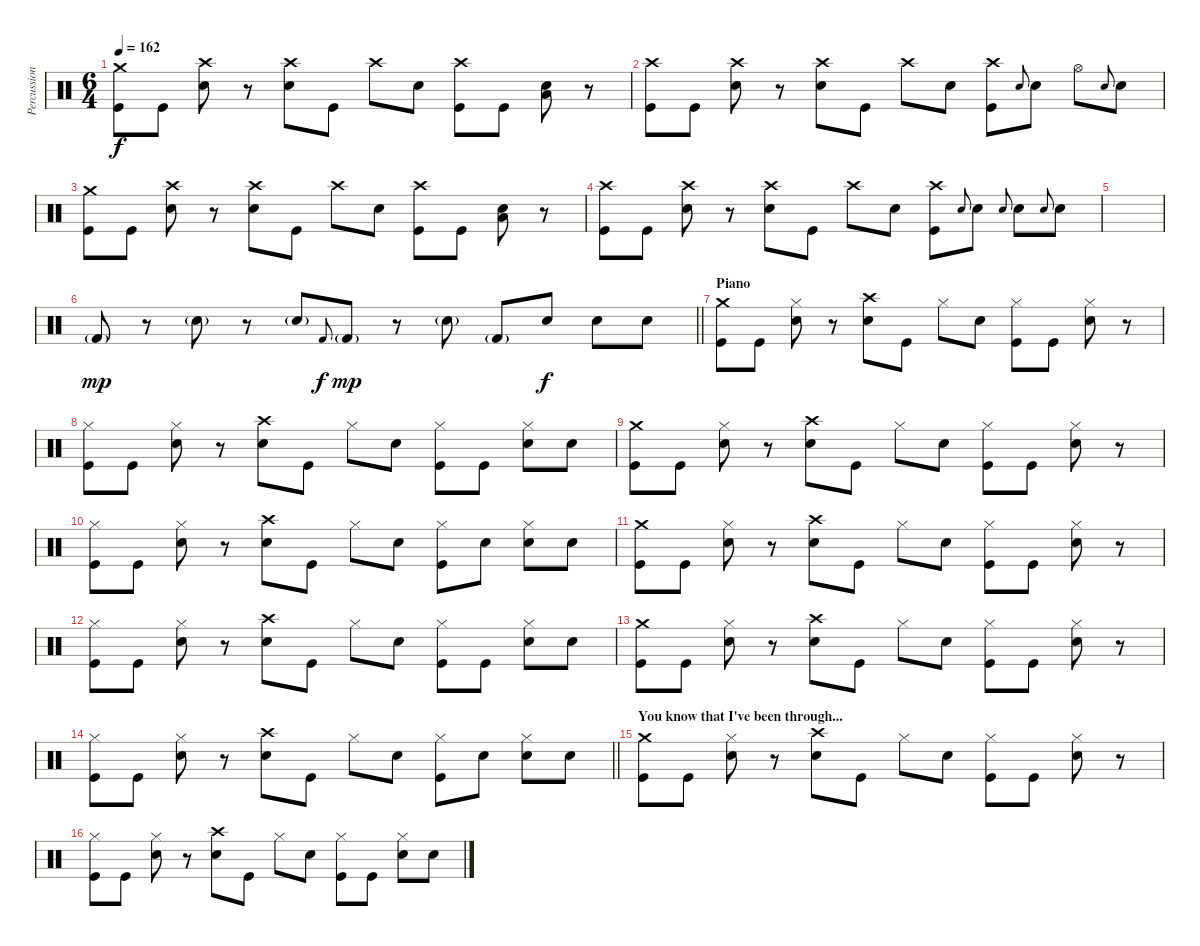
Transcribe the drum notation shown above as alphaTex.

\track ("Percussion" "Percussion") {instrument percussion}
\staff {score}
\articulation defaults
\ts (6 4)
\tempo 162
\clef neutral
\ks c
("Crash medium (hit)" "Kick (hit)").8{dy f} "Kick (hit)".8 ("Crash high (hit)" "Snare (hit) 2").8 r.8 ("Crash high (hit)" "Snare (hit) 2").8 "Kick (hit)".8 "Crash high (hit)".8 "Snare (hit) 2".8 ("Crash high (hit)" "Kick (hit)").8 "Kick (hit)".8 ("Low Floor Tom (hit)" "Snare (hit) 2").8 r.8 |
("Crash high (hit)" "Kick (hit)").8 "Kick (hit)".8 ("Crash high (hit)" "Snare (hit) 2").8 r.8 ("Crash high (hit)" "Snare (hit) 2").8 "Kick (hit)".8 "Crash high (hit)".8 "Snare (hit) 2".8 ("Crash high (hit)" "Kick (hit)").8 "Snare (hit) 2".8{gr onbeat} "Snare (hit) 2".8 "Hi-Hat (open)".8 "Snare (hit) 2".8{gr onbeat} "Snare (hit) 2".8 |
("Crash medium (hit)" "Kick (hit)").8 "Kick (hit)".8 ("Crash high (hit)" "Snare (hit) 2").8 r.8 ("Crash high (hit)" "Snare (hit) 2").8 "Kick (hit)".8 "Crash high (hit)".8 "Snare (hit) 2".8 ("Crash high (hit)" "Kick (hit)").8 "Kick (hit)".8 ("Low Floor Tom (hit)" "Snare (hit) 2").8 r.8 |
("Crash high (hit)" "Kick (hit)").8 "Kick (hit)".8 ("Crash high (hit)" "Snare (hit) 2").8 r.8 ("Crash high (hit)" "Snare (hit) 2").8 "Kick (hit)".8 "Crash high (hit)".8 "Snare (hit) 2".8 ("Crash high (hit)" "Kick (hit)").8 "Snare (hit) 2".8{gr onbeat} "Snare (hit) 2".8 "Snare (hit) 2".8{gr onbeat} "Snare (hit) 2".8 "Snare (hit) 2".8{gr onbeat} "Snare (hit) 2".8 |
|
\barLineRight lightlight "Kick (hit) 2"{g}.8{dy mp}
r.8 "Electric Snare (hit)"{g}.8 r.8 "Electric Snare (hit)"{g}.8 "Kick (hit) 2".8{gr onbeat dy f} "Kick (hit) 2"{g}.8{dy mp} r.8 "Electric Snare (hit)"{g}.8 "Kick (hit) 2"{g}.8 "Snare (hit) 2".8{dy f} "Snare (hit) 2".8 "Snare (hit) 2".8 |
\section ("" "Piano")
("Crash medium (hit)" "Kick (hit)").8 "Kick (hit)".8 ("Hi-Hat (closed)" "Snare (hit) 2").8 r.8 ("Crash high (hit)" "Snare (hit) 2").8 "Kick (hit)".8 "Hi-Hat (closed)".8 "Snare (hit) 2".8 ("Hi-Hat (closed)" "Kick (hit)").8 "Kick (hit)".8 ("Hi-Hat (closed)" "Snare (hit) 2").8 r.8 |
("Hi-Hat (closed)" "Kick (hit)").8 "Kick (hit)".8 ("Hi-Hat (closed)" "Snare (hit) 2").8 r.8 ("Crash high (hit)" "Snare (hit) 2").8 "Kick (hit)".8 "Hi-Hat (closed)".8 "Snare (hit) 2".8 ("Hi-Hat (closed)" "Kick (hit)").8 "Kick (hit)".8 ("Hi-Hat (closed)" "Snare (hit) 2").8 "Snare (hit) 2".8 |
("Crash medium (hit)" "Kick (hit)").8 "Kick (hit)".8 ("Hi-Hat (closed)" "Snare (hit) 2").8 r.8 ("Crash high (hit)" "Snare (hit) 2").8 "Kick (hit)".8 "Hi-Hat (closed)".8 "Snare (hit) 2".8 ("Hi-Hat (closed)" "Kick (hit)").8 "Kick (hit)".8 ("Hi-Hat (closed)" "Snare (hit) 2").8 r.8 |
("Hi-Hat (closed)" "Kick (hit)").8 "Kick (hit)".8 ("Hi-Hat (closed)" "Snare (hit) 2").8 r.8 ("Crash high (hit)" "Snare (hit) 2").8 "Kick (hit)".8 "Hi-Hat (closed)".8 "Snare (hit) 2".8 ("Hi-Hat (closed)" "Kick (hit)").8 "Snare (hit) 2".8 ("Hi-Hat (closed)" "Snare (hit) 2").8 "Snare (hit) 2".8 |
("Crash medium (hit)" "Kick (hit)").8 "Kick (hit)".8 ("Hi-Hat (closed)" "Snare (hit) 2").8 r.8 ("Crash high (hit)" "Snare (hit) 2").8 "Kick (hit)".8 "Hi-Hat (closed)".8 "Snare (hit) 2".8 ("Hi-Hat (closed)" "Kick (hit)").8 "Kick (hit)".8 ("Hi-Hat (closed)" "Snare (hit) 2").8 r.8 |
("Hi-Hat (closed)" "Kick (hit)").8 "Kick (hit)".8 ("Hi-Hat (closed)" "Snare (hit) 2").8 r.8 ("Crash high (hit)" "Snare (hit) 2").8 "Kick (hit)".8 "Hi-Hat (closed)".8 "Snare (hit) 2".8 ("Hi-Hat (closed)" "Kick (hit)").8 "Kick (hit)".8 ("Hi-Hat (closed)" "Snare (hit) 2").8 "Snare (hit) 2".8 |
("Crash medium (hit)" "Kick (hit)").8 "Kick (hit)".8 ("Hi-Hat (closed)" "Snare (hit) 2").8 r.8 ("Crash high (hit)" "Snare (hit) 2").8 "Kick (hit)".8 "Hi-Hat (closed)".8 "Snare (hit) 2".8 ("Hi-Hat (closed)" "Kick (hit)").8 "Kick (hit)".8 ("Hi-Hat (closed)" "Snare (hit) 2").8 r.8 |
\barLineRight lightlight
("Hi-Hat (closed)" "Kick (hit)").8 "Kick (hit)".8 ("Hi-Hat (closed)" "Snare (hit) 2").8 r.8 ("Crash high (hit)" "Snare (hit) 2").8 "Kick (hit)".8 "Hi-Hat (closed)".8 "Snare (hit) 2".8 ("Hi-Hat (closed)" "Kick (hit)").8 "Snare (hit) 2".8 ("Hi-Hat (closed)" "Snare (hit) 2").8 "Snare (hit) 2".8 |
\section ("" "You know that I've been through...")
("Crash medium (hit)" "Kick (hit)").8 "Kick (hit)".8 ("Hi-Hat (closed)" "Snare (hit) 2").8 r.8 ("Crash high (hit)" "Snare (hit) 2").8 "Kick (hit)".8 "Hi-Hat (closed)".8 "Snare (hit) 2".8 ("Hi-Hat (closed)" "Kick (hit)").8 "Kick (hit)".8 ("Hi-Hat (closed)" "Snare (hit) 2").8 r.8 |
("Hi-Hat (closed)" "Kick (hit)").8 "Kick (hit)".8 ("Hi-Hat (closed)" "Snare (hit) 2").8 r.8 ("Crash high (hit)" "Snare (hit) 2").8 "Kick (hit)".8 "Hi-Hat (closed)".8 "Snare (hit) 2".8 ("Hi-Hat (closed)" "Kick (hit)").8 "Kick (hit)".8 ("Hi-Hat (closed)" "Snare (hit) 2").8 "Snare (hit) 2".8
